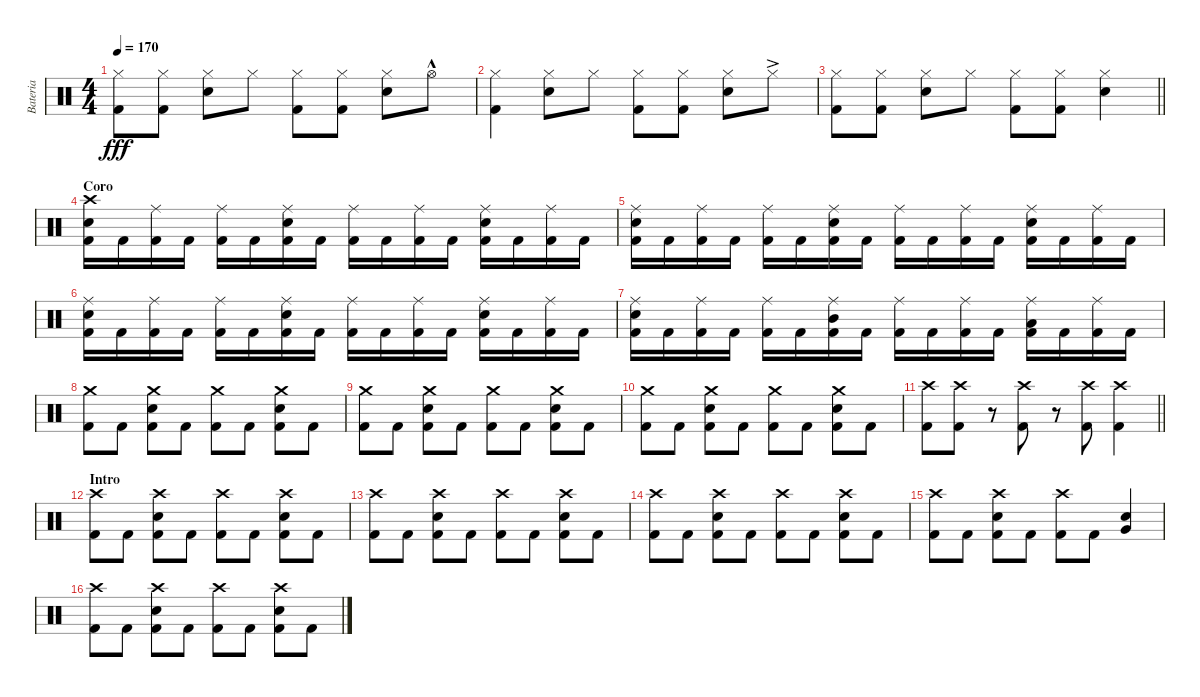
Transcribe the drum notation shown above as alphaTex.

\track ("Bateria" "Bateria") {instrument percussion}
\staff {score}
\articulation defaults
\ts (4 4)
\tempo 170
\clef neutral
\ks c
("Hi-Hat (closed)" "Kick (hit) 2").8{dy fff} ("Hi-Hat (closed)" "Kick (hit) 2").8 ("Hi-Hat (closed)" "Electric Snare (hit)").8 "Hi-Hat (closed)".8 ("Hi-Hat (closed)" "Kick (hit) 2").8 ("Hi-Hat (closed)" "Kick (hit) 2").8 ("Hi-Hat (closed)" "Electric Snare (hit)").8 "Hi-Hat (open)"{hac}.8 |
("Hi-Hat (closed)" "Kick (hit) 2").4 ("Hi-Hat (closed)" "Electric Snare (hit)").8 "Hi-Hat (closed)".8 ("Hi-Hat (closed)" "Kick (hit) 2").8 ("Hi-Hat (closed)" "Kick (hit) 2").8 ("Hi-Hat (closed)" "Electric Snare (hit)").8 "Hi-Hat (closed)"{ac}.8 |
\barLineRight lightlight
("Hi-Hat (closed)" "Kick (hit) 2").8 ("Hi-Hat (closed)" "Kick (hit) 2").8 ("Hi-Hat (closed)" "Electric Snare (hit)").8 "Hi-Hat (closed)".8 ("Hi-Hat (closed)" "Kick (hit) 2").8 ("Hi-Hat (closed)" "Kick (hit) 2").8 ("Hi-Hat (closed)" "Electric Snare (hit)").4 |
\section ("" "Coro")
("Crash high (hit)" "Electric Snare (hit)" "Kick (hit) 2").16 "Kick (hit) 2".16 ("Ride (middle)" "Kick (hit) 2").16 "Kick (hit) 2".16 ("Ride (middle)" "Kick (hit) 2").16 "Kick (hit) 2".16 ("Ride (middle)" "Electric Snare (hit)" "Kick (hit) 2").16 "Kick (hit) 2".16 ("Ride (middle)" "Kick (hit) 2").16 "Kick (hit) 2".16 ("Ride (middle)" "Kick (hit) 2").16 "Kick (hit) 2".16 ("Ride (middle)" "Electric Snare (hit)" "Kick (hit) 2").16 "Kick (hit) 2".16 ("Ride (middle)" "Kick (hit) 2").16 "Kick (hit) 2".16 |
("Ride (middle)" "Electric Snare (hit)" "Kick (hit) 2").16 "Kick (hit) 2".16 ("Ride (middle)" "Kick (hit) 2").16 "Kick (hit) 2".16 ("Ride (middle)" "Kick (hit) 2").16 "Kick (hit) 2".16 ("Ride (middle)" "Electric Snare (hit)" "Kick (hit) 2").16 "Kick (hit) 2".16 ("Ride (middle)" "Kick (hit) 2").16 "Kick (hit) 2".16 ("Ride (middle)" "Kick (hit) 2").16 "Kick (hit) 2".16 ("Ride (middle)" "Electric Snare (hit)" "Kick (hit) 2").16 "Kick (hit) 2".16 ("Ride (middle)" "Kick (hit) 2").16 "Kick (hit) 2".16 |
("Ride (middle)" "Electric Snare (hit)" "Kick (hit) 2").16 "Kick (hit) 2".16 ("Ride (middle)" "Kick (hit) 2").16 "Kick (hit) 2".16 ("Ride (middle)" "Kick (hit) 2").16 "Kick (hit) 2".16 ("Ride (middle)" "Electric Snare (hit)" "Kick (hit) 2").16 "Kick (hit) 2".16 ("Ride (middle)" "Kick (hit) 2").16 "Kick (hit) 2".16 ("Ride (middle)" "Kick (hit) 2").16 "Kick (hit) 2".16 ("Ride (middle)" "Electric Snare (hit)" "Kick (hit) 2").16 "Kick (hit) 2".16 ("Ride (middle)" "Kick (hit) 2").16 "Kick (hit) 2".16 |
("Ride (middle)" "Electric Snare (hit)" "Kick (hit) 2").16 "Kick (hit) 2".16 ("Ride (middle)" "Kick (hit) 2").16 "Kick (hit) 2".16 ("Ride (middle)" "Kick (hit) 2").16 "Kick (hit) 2".16 ("Ride (middle)" "Mid Tom (hit)" "Kick (hit) 2").16 "Kick (hit) 2".16 ("Ride (middle)" "Kick (hit) 2").16 "Kick (hit) 2".16 ("Ride (middle)" "Kick (hit) 2").16 "Kick (hit) 2".16 ("Ride (middle)" "Low Tom (hit)" "Kick (hit) 2").16 "Kick (hit) 2".16 ("Ride (middle)" "Kick (hit) 2").16 "Kick (hit) 2".16 |
("Crash medium (hit)" "Kick (hit) 2").8 "Kick (hit) 2".8 ("Crash medium (hit)" "Electric Snare (hit)" "Kick (hit) 2").8 "Kick (hit) 2".8 ("Crash medium (hit)" "Kick (hit) 2").8 "Kick (hit) 2".8 ("Crash medium (hit)" "Electric Snare (hit)" "Kick (hit) 2").8 "Kick (hit) 2".8 |
("Crash medium (hit)" "Kick (hit) 2").8 "Kick (hit) 2".8 ("Crash medium (hit)" "Electric Snare (hit)" "Kick (hit) 2").8 "Kick (hit) 2".8 ("Crash medium (hit)" "Kick (hit) 2").8 "Kick (hit) 2".8 ("Crash medium (hit)" "Electric Snare (hit)" "Kick (hit) 2").8 "Kick (hit) 2".8 |
("Crash medium (hit)" "Kick (hit) 2").8 "Kick (hit) 2".8 ("Crash medium (hit)" "Electric Snare (hit)" "Kick (hit) 2").8 "Kick (hit) 2".8 ("Crash medium (hit)" "Kick (hit) 2").8 "Kick (hit) 2".8 ("Crash medium (hit)" "Electric Snare (hit)" "Kick (hit) 2").8 "Kick (hit) 2".8 |
\barLineRight lightlight
("Crash high (hit)" "Kick (hit) 2").8 ("Crash high (hit)" "Kick (hit) 2").8 r.8 ("Crash high (hit)" "Kick (hit) 2").8 r.8 ("Crash high (hit)" "Kick (hit) 2").8 ("Crash high (hit)" "Kick (hit) 2").4 |
\section ("" "Intro")
("Crash high (hit)" "Kick (hit) 2").8 "Kick (hit) 2".8 ("Crash high (hit)" "Electric Snare (hit)" "Kick (hit) 2").8 "Kick (hit) 2".8 ("Crash high (hit)" "Kick (hit) 2").8 "Kick (hit) 2".8 ("Crash high (hit)" "Electric Snare (hit)" "Kick (hit) 2").8 "Kick (hit) 2".8 |
("Crash high (hit)" "Kick (hit) 2").8 "Kick (hit) 2".8 ("Crash high (hit)" "Electric Snare (hit)" "Kick (hit) 2").8 "Kick (hit) 2".8 ("Crash high (hit)" "Kick (hit) 2").8 "Kick (hit) 2".8 ("Crash high (hit)" "Electric Snare (hit)" "Kick (hit) 2").8 "Kick (hit) 2".8 |
("Crash high (hit)" "Kick (hit) 2").8 "Kick (hit) 2".8 ("Crash high (hit)" "Electric Snare (hit)" "Kick (hit) 2").8 "Kick (hit) 2".8 ("Crash high (hit)" "Kick (hit) 2").8 "Kick (hit) 2".8 ("Crash high (hit)" "Electric Snare (hit)" "Kick (hit) 2").8 "Kick (hit) 2".8 |
("Crash high (hit)" "Kick (hit) 2").8 "Kick (hit) 2".8 ("Crash high (hit)" "Electric Snare (hit)" "Kick (hit) 2").8 "Kick (hit) 2".8 ("Crash high (hit)" "Kick (hit) 2").8 "Kick (hit) 2".8 ("Electric Snare (hit)" "Very Low Tom (hit)").4 |
("Crash high (hit)" "Kick (hit) 2").8 "Kick (hit) 2".8 ("Crash high (hit)" "Electric Snare (hit)" "Kick (hit) 2").8 "Kick (hit) 2".8 ("Crash high (hit)" "Kick (hit) 2").8 "Kick (hit) 2".8 ("Crash high (hit)" "Electric Snare (hit)" "Kick (hit) 2").8 "Kick (hit) 2".8
